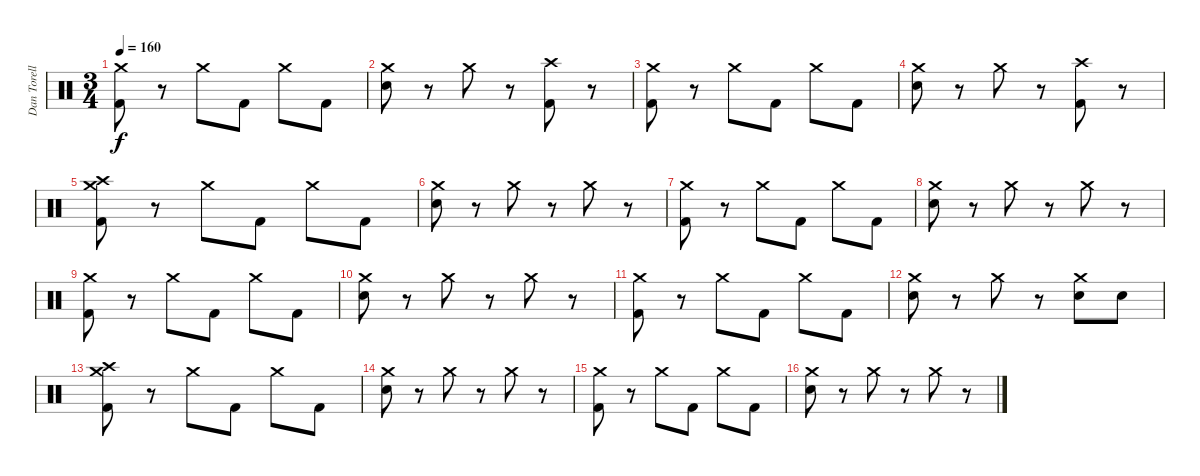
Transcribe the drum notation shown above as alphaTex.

\track ("Dan Torelli - Drums" "Dan Torell") {instrument percussion}
\staff {score}
\articulation defaults
\ts (3 4)
\tempo 160
\clef neutral
\ks c
("Crash medium (hit)" "Kick (hit) 2").8{dy f} r.8 "Crash medium (hit)".8 "Kick (hit) 2".8 "Crash medium (hit)".8 "Kick (hit) 2".8 |
("Crash medium (hit)" "Electric Snare (hit)").8 r.8 "Crash medium (hit)".8 r.8 ("Crash high (hit)" "Kick (hit) 2").8 r.8 |
("Crash medium (hit)" "Kick (hit) 2").8 r.8 "Crash medium (hit)".8 "Kick (hit) 2".8 "Crash medium (hit)".8 "Kick (hit) 2".8 |
("Crash medium (hit)" "Electric Snare (hit)").8 r.8 "Crash medium (hit)".8 r.8 ("Crash high (hit)" "Kick (hit) 2").8 r.8 |
("Crash high (hit)" "Crash medium (hit)" "Kick (hit) 2").8 r.8 "Crash medium (hit)".8 "Kick (hit) 2".8 "Crash medium (hit)".8 "Kick (hit) 2".8 |
("Crash medium (hit)" "Electric Snare (hit)").8 r.8 "Crash medium (hit)".8 r.8 "Crash medium (hit)".8 r.8 |
("Crash medium (hit)" "Kick (hit) 2").8 r.8 "Crash medium (hit)".8 "Kick (hit) 2".8 "Crash medium (hit)".8 "Kick (hit) 2".8 |
("Crash medium (hit)" "Electric Snare (hit)").8 r.8 "Crash medium (hit)".8 r.8 "Crash medium (hit)".8 r.8 |
("Crash medium (hit)" "Kick (hit) 2").8 r.8 "Crash medium (hit)".8 "Kick (hit) 2".8 "Crash medium (hit)".8 "Kick (hit) 2".8 |
("Crash medium (hit)" "Electric Snare (hit)").8 r.8 "Crash medium (hit)".8 r.8 "Crash medium (hit)".8 r.8 |
("Crash medium (hit)" "Kick (hit) 2").8 r.8 "Crash medium (hit)".8 "Kick (hit) 2".8 "Crash medium (hit)".8 "Kick (hit) 2".8 |
("Crash medium (hit)" "Electric Snare (hit)").8 r.8 "Crash medium (hit)".8 r.8 ("Crash medium (hit)" "Electric Snare (hit)").8 "Electric Snare (hit)".8 |
("Crash medium (hit)" "Crash high (hit)" "Kick (hit) 2").8 r.8 "Crash medium (hit)".8 "Kick (hit) 2".8 "Crash medium (hit)".8 "Kick (hit) 2".8 |
("Crash medium (hit)" "Electric Snare (hit)").8 r.8 "Crash medium (hit)".8 r.8 "Crash medium (hit)".8 r.8 |
("Crash medium (hit)" "Kick (hit) 2").8 r.8 "Crash medium (hit)".8 "Kick (hit) 2".8 "Crash medium (hit)".8 "Kick (hit) 2".8 |
("Crash medium (hit)" "Electric Snare (hit)").8 r.8 "Crash medium (hit)".8 r.8 "Crash medium (hit)".8 r.8
